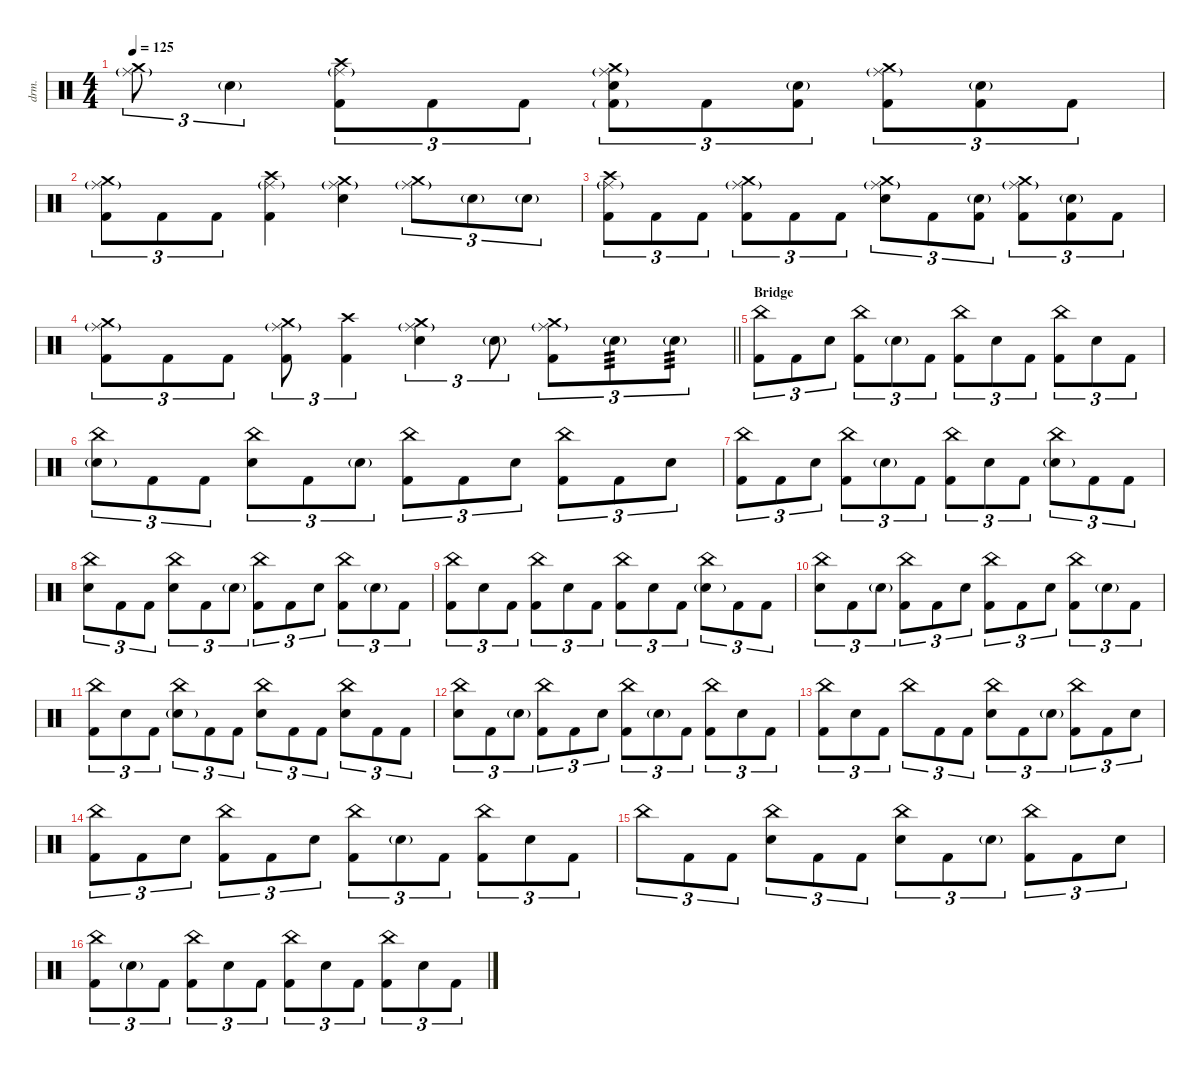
\defaultSystemsLayout 4
\hideDynamics
\bracketExtendMode nobrackets
\track ("DRUMS (Thomas Haake)" "drm.") {instrument percussion}
\staff {score}
\articulation defaults
\ts (4 4)
\tempo 125
\clef neutral
\ks c
("Crash medium (hit)" "Ride (middle)"{g}).8{tu (3 2) dy mf} "Snare (hit) 2"{g}.4{tu (3 2) dy p} ("Crash high (hit)" "Ride (middle)"{g} "Kick (hit) 2").8{tu (3 2) dy mf} "Kick (hit) 2".8{tu (3 2) dy f} "Kick (hit) 2".8{tu (3 2)} ("Crash medium (hit)" "Ride (middle)"{g} "Snare (hit) 2" "Kick (hit) 2"{g}).8{tu (3 2) dy mf} "Kick (hit) 2".8{tu (3 2) dy f} ("Snare (hit) 2"{g} "Kick (hit) 2").8{tu (3 2)} ("Crash medium (hit)" "Ride (middle)"{g} "Kick (hit) 2").8{tu (3 2) dy mf} ("Snare (hit) 2"{g} "Kick (hit) 2").8{tu (3 2) dy f} "Kick (hit) 2".8{tu (3 2)} |
("Crash medium (hit)" "Ride (middle)"{g} "Kick (hit) 2").8{tu (3 2) dy mf} "Kick (hit) 2".8{tu (3 2) dy f} "Kick (hit) 2".8{tu (3 2)} ("Crash high (hit)" "Ride (middle)"{g} "Kick (hit) 2").4{dy mf} ("Crash medium (hit)" "Ride (middle)"{g} "Snare (hit) 2").4 ("Crash medium (hit)" "Ride (middle)"{g}).8{tu (3 2)} "Snare (hit) 2"{g}.8{tu (3 2) dy p} "Snare (hit) 2"{g}.8{tu (3 2)} |
("Crash high (hit)" "Ride (middle)"{g} "Kick (hit) 2").8{tu (3 2) dy mf} "Kick (hit) 2".8{tu (3 2) dy f} "Kick (hit) 2".8{tu (3 2)} ("Crash medium (hit)" "Ride (middle)"{g} "Kick (hit) 2").8{tu (3 2) dy mf} "Kick (hit) 2".8{tu (3 2) dy f} "Kick (hit) 2".8{tu (3 2)} ("Crash medium (hit)" "Ride (middle)"{g} "Snare (hit) 2").8{tu (3 2) dy mf} "Kick (hit) 2".8{tu (3 2) dy f} ("Snare (hit) 2"{g} "Kick (hit) 2").8{tu (3 2)} ("Crash medium (hit)" "Ride (middle)"{g} "Kick (hit) 2").8{tu (3 2) dy mf} ("Snare (hit) 2"{g} "Kick (hit) 2").8{tu (3 2) dy f} "Kick (hit) 2".8{tu (3 2)} |
\barLineRight lightlight
("Crash medium (hit)" "Ride (middle)"{g} "Kick (hit) 2").8{tu (3 2) dy mf} "Kick (hit) 2".8{tu (3 2) dy f} "Kick (hit) 2".8{tu (3 2)} ("Crash medium (hit)" "Ride (middle)"{g} "Kick (hit) 2").8{tu (3 2) dy mf} ("Crash high (hit)" "Kick (hit) 2").4{tu (3 2)} ("Crash medium (hit)" "Ride (middle)"{g} "Snare (hit) 2").4{tu (3 2)} "Snare (hit) 2"{g}.8{tu (3 2) dy p} ("Crash medium (hit)" "Ride (middle)"{g} "Kick (hit) 2").8{tu (3 2) dy mf} "Snare (hit) 2"{g}.8{tu (3 2) tp 3 dy p} "Snare (hit) 2"{g}.8{tu (3 2) tp 3 dy mp} |
\section ("" "Bridge")
("China (hit)" "Kick (hit) 2").8{tu (3 2) dy f} "Kick (hit) 2".8{tu (3 2)} "Snare (hit) 2".8{tu (3 2)} ("China (hit)" "Kick (hit) 2").8{tu (3 2)} "Snare (hit) 2"{g}.8{tu (3 2) dy p} "Kick (hit) 2".8{tu (3 2) dy f} ("China (hit)" "Kick (hit) 2").8{tu (3 2)} "Snare (hit) 2".8{tu (3 2)} "Kick (hit) 2".8{tu (3 2)} ("China (hit)" "Kick (hit) 2").8{tu (3 2)} "Snare (hit) 2".8{tu (3 2)} "Kick (hit) 2".8{tu (3 2)} |
("China (hit)" "Snare (hit) 2"{g}).8{tu (3 2)} "Kick (hit) 2".8{tu (3 2)} "Kick (hit) 2".8{tu (3 2)} ("China (hit)" "Snare (hit) 2").8{tu (3 2)} "Kick (hit) 2".8{tu (3 2)} "Snare (hit) 2"{g}.8{tu (3 2) dy p} ("China (hit)" "Kick (hit) 2").8{tu (3 2) dy f} "Kick (hit) 2".8{tu (3 2)} "Snare (hit) 2".8{tu (3 2)} ("China (hit)" "Kick (hit) 2").8{tu (3 2)} "Kick (hit) 2".8{tu (3 2)} "Snare (hit) 2".8{tu (3 2)} |
("China (hit)" "Kick (hit) 2").8{tu (3 2)} "Kick (hit) 2".8{tu (3 2)} "Snare (hit) 2".8{tu (3 2)} ("China (hit)" "Kick (hit) 2").8{tu (3 2)} "Snare (hit) 2"{g}.8{tu (3 2) dy p} "Kick (hit) 2".8{tu (3 2) dy f} ("China (hit)" "Kick (hit) 2").8{tu (3 2)} "Snare (hit) 2".8{tu (3 2)} "Kick (hit) 2".8{tu (3 2)} ("China (hit)" "Snare (hit) 2"{g}).8{tu (3 2)} "Kick (hit) 2".8{tu (3 2)} "Kick (hit) 2".8{tu (3 2)} |
("China (hit)" "Snare (hit) 2").8{tu (3 2)} "Kick (hit) 2".8{tu (3 2)} "Kick (hit) 2".8{tu (3 2)} ("China (hit)" "Snare (hit) 2").8{tu (3 2)} "Kick (hit) 2".8{tu (3 2)} "Snare (hit) 2"{g}.8{tu (3 2) dy p} ("China (hit)" "Kick (hit) 2").8{tu (3 2) dy f} "Kick (hit) 2".8{tu (3 2)} "Snare (hit) 2".8{tu (3 2)} ("China (hit)" "Kick (hit) 2").8{tu (3 2)} "Snare (hit) 2"{g}.8{tu (3 2) dy p} "Kick (hit) 2".8{tu (3 2) dy f} |
("China (hit)" "Kick (hit) 2").8{tu (3 2)} "Snare (hit) 2".8{tu (3 2)} "Kick (hit) 2".8{tu (3 2)} ("China (hit)" "Kick (hit) 2").8{tu (3 2)} "Snare (hit) 2".8{tu (3 2)} "Kick (hit) 2".8{tu (3 2)} ("China (hit)" "Kick (hit) 2").8{tu (3 2)} "Snare (hit) 2".8{tu (3 2)} "Kick (hit) 2".8{tu (3 2)} ("China (hit)" "Snare (hit) 2"{g}).8{tu (3 2)} "Kick (hit) 2".8{tu (3 2)} "Kick (hit) 2".8{tu (3 2)} |
("China (hit)" "Snare (hit) 2").8{tu (3 2)} "Kick (hit) 2".8{tu (3 2)} "Snare (hit) 2"{g}.8{tu (3 2) dy p} ("China (hit)" "Kick (hit) 2").8{tu (3 2) dy f} "Kick (hit) 2".8{tu (3 2)} "Snare (hit) 2".8{tu (3 2)} ("China (hit)" "Kick (hit) 2").8{tu (3 2)} "Kick (hit) 2".8{tu (3 2)} "Snare (hit) 2".8{tu (3 2)} ("China (hit)" "Kick (hit) 2").8{tu (3 2)} "Snare (hit) 2"{g}.8{tu (3 2) dy p} "Kick (hit) 2".8{tu (3 2) dy f} |
("China (hit)" "Kick (hit) 2").8{tu (3 2)} "Snare (hit) 2".8{tu (3 2)} "Kick (hit) 2".8{tu (3 2)} ("China (hit)" "Snare (hit) 2"{g}).8{tu (3 2)} "Kick (hit) 2".8{tu (3 2)} "Kick (hit) 2".8{tu (3 2)} ("China (hit)" "Snare (hit) 2").8{tu (3 2)} "Kick (hit) 2".8{tu (3 2)} "Kick (hit) 2".8{tu (3 2)} ("China (hit)" "Snare (hit) 2").8{tu (3 2)} "Kick (hit) 2".8{tu (3 2)} "Kick (hit) 2".8{tu (3 2)} |
("China (hit)" "Snare (hit) 2").8{tu (3 2)} "Kick (hit) 2".8{tu (3 2)} "Snare (hit) 2"{g}.8{tu (3 2) dy p} ("China (hit)" "Kick (hit) 2").8{tu (3 2) dy f} "Kick (hit) 2".8{tu (3 2)} "Snare (hit) 2".8{tu (3 2)} ("China (hit)" "Kick (hit) 2").8{tu (3 2)} "Snare (hit) 2"{g}.8{tu (3 2) dy p} "Kick (hit) 2".8{tu (3 2) dy f} ("China (hit)" "Kick (hit) 2").8{tu (3 2)} "Snare (hit) 2".8{tu (3 2)} "Kick (hit) 2".8{tu (3 2)} |
("China (hit)" "Kick (hit) 2").8{tu (3 2)} "Snare (hit) 2".8{tu (3 2)} "Kick (hit) 2".8{tu (3 2)} "China (hit)".8{tu (3 2)} "Kick (hit) 2".8{tu (3 2)} "Kick (hit) 2".8{tu (3 2)} ("China (hit)" "Snare (hit) 2").8{tu (3 2)} "Kick (hit) 2".8{tu (3 2)} "Snare (hit) 2"{g}.8{tu (3 2) dy p} ("China (hit)" "Kick (hit) 2").8{tu (3 2) dy f} "Kick (hit) 2".8{tu (3 2)} "Snare (hit) 2".8{tu (3 2)} |
("China (hit)" "Kick (hit) 2").8{tu (3 2)} "Kick (hit) 2".8{tu (3 2)} "Snare (hit) 2".8{tu (3 2)} ("China (hit)" "Kick (hit) 2").8{tu (3 2)} "Kick (hit) 2".8{tu (3 2)} "Snare (hit) 2".8{tu (3 2)} ("China (hit)" "Kick (hit) 2").8{tu (3 2)} "Snare (hit) 2"{g}.8{tu (3 2) dy p} "Kick (hit) 2".8{tu (3 2) dy f} ("China (hit)" "Kick (hit) 2").8{tu (3 2)} "Snare (hit) 2".8{tu (3 2)} "Kick (hit) 2".8{tu (3 2)} |
"China (hit)".8{tu (3 2)} "Kick (hit) 2".8{tu (3 2)} "Kick (hit) 2".8{tu (3 2)} ("China (hit)" "Snare (hit) 2").8{tu (3 2)} "Kick (hit) 2".8{tu (3 2)} "Kick (hit) 2".8{tu (3 2)} ("China (hit)" "Snare (hit) 2").8{tu (3 2)} "Kick (hit) 2".8{tu (3 2)} "Snare (hit) 2"{g}.8{tu (3 2) dy p} ("China (hit)" "Kick (hit) 2").8{tu (3 2) dy f} "Kick (hit) 2".8{tu (3 2)} "Snare (hit) 2".8{tu (3 2)} |
("China (hit)" "Kick (hit) 2").8{tu (3 2)} "Snare (hit) 2"{g}.8{tu (3 2) dy p} "Kick (hit) 2".8{tu (3 2) dy f} ("China (hit)" "Kick (hit) 2").8{tu (3 2)} "Snare (hit) 2".8{tu (3 2)} "Kick (hit) 2".8{tu (3 2)} ("China (hit)" "Kick (hit) 2").8{tu (3 2)} "Snare (hit) 2".8{tu (3 2)} "Kick (hit) 2".8{tu (3 2)} ("China (hit)" "Kick (hit) 2").8{tu (3 2)} "Snare (hit) 2".8{tu (3 2)} "Kick (hit) 2".8{tu (3 2)}
